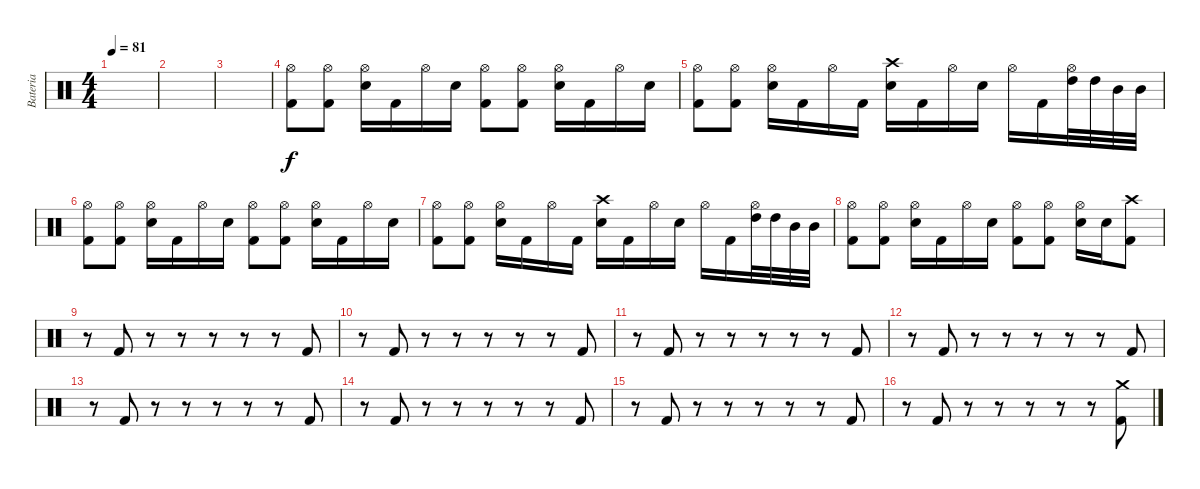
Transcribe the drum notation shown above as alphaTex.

\track ("Bateria" "Bateria") {instrument percussion}
\staff {score}
\articulation defaults
\ts (4 4)
\tempo 81
\clef neutral
\ks c
|
|
|
("Hi-Hat (open)" "Kick (hit) 2").8 ("Hi-Hat (open)" "Kick (hit) 2").8 ("Hi-Hat (open)" "Electric Snare (hit)").16 "Kick (hit) 2".16 "Hi-Hat (open)".16 "Electric Snare (hit)".16 ("Hi-Hat (open)" "Kick (hit) 2").8 ("Hi-Hat (open)" "Kick (hit) 2").8 ("Hi-Hat (open)" "Electric Snare (hit)").16 "Kick (hit) 2".16 "Hi-Hat (open)".16 "Electric Snare (hit)".16 |
("Hi-Hat (open)" "Kick (hit) 2").8 ("Hi-Hat (open)" "Kick (hit) 2").8 ("Hi-Hat (open)" "Electric Snare (hit)").16 "Kick (hit) 2".16 "Hi-Hat (open)".16 "Kick (hit) 2".16 ("Crash high (hit)" "Electric Snare (hit)").16 "Kick (hit) 2".16 "Hi-Hat (open)".16 "Electric Snare (hit)".16 "Hi-Hat (open)".16 "Kick (hit) 2".16 ("Hi-Hat (open)" "High Tom (hit)").32 "High Tom (hit)".32 "Mid Tom (hit)".32 "Mid Tom (hit)".32 |
("Hi-Hat (open)" "Kick (hit) 2").8 ("Hi-Hat (open)" "Kick (hit) 2").8 ("Hi-Hat (open)" "Electric Snare (hit)").16 "Kick (hit) 2".16 "Hi-Hat (open)".16 "Electric Snare (hit)".16 ("Hi-Hat (open)" "Kick (hit) 2").8 ("Hi-Hat (open)" "Kick (hit) 2").8 ("Hi-Hat (open)" "Electric Snare (hit)").16 "Kick (hit) 2".16 "Hi-Hat (open)".16 "Electric Snare (hit)".16 |
("Hi-Hat (open)" "Kick (hit) 2").8 ("Hi-Hat (open)" "Kick (hit) 2").8 ("Hi-Hat (open)" "Electric Snare (hit)").16 "Kick (hit) 2".16 "Hi-Hat (open)".16 "Kick (hit) 2".16 ("Crash high (hit)" "Electric Snare (hit)").16 "Kick (hit) 2".16 "Hi-Hat (open)".16 "Electric Snare (hit)".16 "Hi-Hat (open)".16 "Kick (hit) 2".16 ("Hi-Hat (open)" "High Tom (hit)").32 "High Tom (hit)".32 "Mid Tom (hit)".32 "Mid Tom (hit)".32 |
("Hi-Hat (open)" "Kick (hit) 2").8 ("Hi-Hat (open)" "Kick (hit) 2").8 ("Hi-Hat (open)" "Electric Snare (hit)").16 "Kick (hit) 2".16 "Hi-Hat (open)".16 "Electric Snare (hit)".16 ("Hi-Hat (open)" "Kick (hit) 2").8 ("Hi-Hat (open)" "Kick (hit) 2").8 ("Hi-Hat (open)" "Electric Snare (hit)").16 "Electric Snare (hit)".16 ("Crash high (hit)" "Kick (hit) 2").8 |
r.8 "Kick (hit) 2".8 r.8 r.8 r.8 r.8 r.8 "Kick (hit) 2".8 |
r.8 "Kick (hit) 2".8 r.8 r.8 r.8 r.8 r.8 "Kick (hit) 2".8 |
r.8 "Kick (hit) 2".8 r.8 r.8 r.8 r.8 r.8 "Kick (hit) 2".8 |
r.8 "Kick (hit) 2".8 r.8 r.8 r.8 r.8 r.8 "Kick (hit) 2".8 |
r.8 "Kick (hit) 2".8 r.8 r.8 r.8 r.8 r.8 "Kick (hit) 2".8 |
r.8 "Kick (hit) 2".8 r.8 r.8 r.8 r.8 r.8 "Kick (hit) 2".8 |
r.8 "Kick (hit) 2".8 r.8 r.8 r.8 r.8 r.8 "Kick (hit) 2".8 |
r.8 "Kick (hit) 2".8 r.8 r.8 r.8 r.8 r.8 ("Crash medium (hit)" "Kick (hit) 2").8
